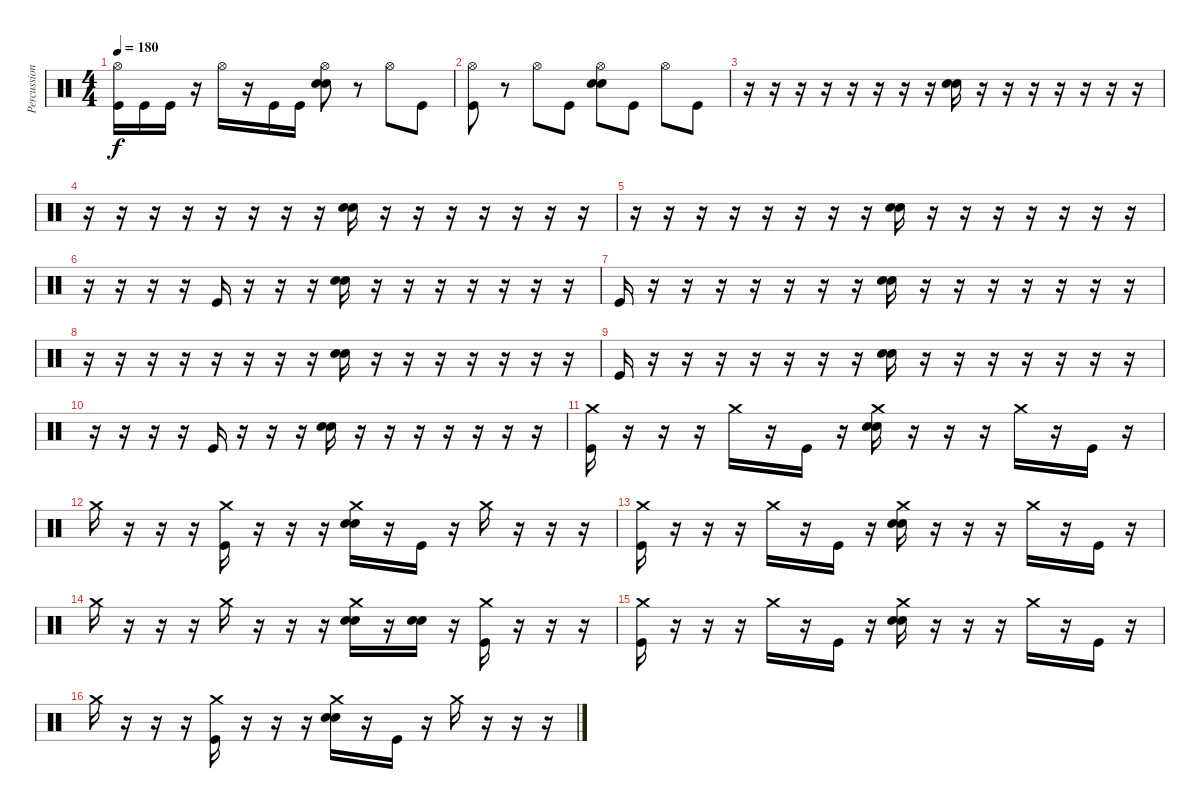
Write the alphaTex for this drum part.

\track ("Percussion" "Percussion") {instrument percussion}
\staff {score}
\articulation defaults
\ts (4 4)
\tempo 180
\clef neutral
\ks c
("Hi-Hat (open)" "Kick (hit)").16{dy f} "Kick (hit)".16 "Kick (hit)".16 r.16 "Hi-Hat (open)".16 r.16 "Kick (hit)".16 "Kick (hit)".16 ("Hi-Hat (open)" "Snare (hit) 2" "Electric Snare (hit)").8 r.8 "Hi-Hat (open)".8 "Kick (hit)".8 |
("Hi-Hat (open)" "Kick (hit)").8 r.8 "Hi-Hat (open)".8 "Kick (hit)".8 ("Hi-Hat (open)" "Snare (hit) 2" "Electric Snare (hit)").8 "Kick (hit)".8 "Hi-Hat (open)".8 "Kick (hit)".8 |
r.16 r.16 r.16 r.16 r.16 r.16 r.16 r.16 ("Snare (hit) 2" "Electric Snare (hit)").16 r.16 r.16 r.16 r.16 r.16 r.16 r.16 |
r.16 r.16 r.16 r.16 r.16 r.16 r.16 r.16 ("Snare (hit) 2" "Electric Snare (hit)").16 r.16 r.16 r.16 r.16 r.16 r.16 r.16 |
r.16 r.16 r.16 r.16 r.16 r.16 r.16 r.16 ("Snare (hit) 2" "Electric Snare (hit)").16 r.16 r.16 r.16 r.16 r.16 r.16 r.16 |
r.16 r.16 r.16 r.16 "Kick (hit)".16 r.16 r.16 r.16 ("Snare (hit) 2" "Electric Snare (hit)").16 r.16 r.16 r.16 r.16 r.16 r.16 r.16 |
"Kick (hit)".16 r.16 r.16 r.16 r.16 r.16 r.16 r.16 ("Snare (hit) 2" "Electric Snare (hit)").16 r.16 r.16 r.16 r.16 r.16 r.16 r.16 |
r.16 r.16 r.16 r.16 r.16 r.16 r.16 r.16 ("Snare (hit) 2" "Electric Snare (hit)").16 r.16 r.16 r.16 r.16 r.16 r.16 r.16 |
"Kick (hit)".16 r.16 r.16 r.16 r.16 r.16 r.16 r.16 ("Snare (hit) 2" "Electric Snare (hit)").16 r.16 r.16 r.16 r.16 r.16 r.16 r.16 |
r.16 r.16 r.16 r.16 "Kick (hit)".16 r.16 r.16 r.16 ("Snare (hit) 2" "Electric Snare (hit)").16 r.16 r.16 r.16 r.16 r.16 r.16 r.16 |
("Crash medium (hit)" "Kick (hit)").16 r.16 r.16 r.16 "Crash medium (hit)".16 r.16 "Kick (hit)".16 r.16 ("Crash medium (hit)" "Snare (hit) 2" "Electric Snare (hit)").16 r.16 r.16 r.16 "Crash medium (hit)".16 r.16 "Kick (hit)".16 r.16 |
"Crash medium (hit)".16 r.16 r.16 r.16 ("Crash medium (hit)" "Kick (hit)").16 r.16 r.16 r.16 ("Crash medium (hit)" "Snare (hit) 2" "Electric Snare (hit)").16 r.16 "Kick (hit)".16 r.16 "Crash medium (hit)".16 r.16 r.16 r.16 |
("Crash medium (hit)" "Kick (hit)").16 r.16 r.16 r.16 "Crash medium (hit)".16 r.16 "Kick (hit)".16 r.16 ("Crash medium (hit)" "Snare (hit) 2" "Electric Snare (hit)").16 r.16 r.16 r.16 "Crash medium (hit)".16 r.16 "Kick (hit)".16 r.16 |
"Crash medium (hit)".16 r.16 r.16 r.16 "Crash medium (hit)".16 r.16 r.16 r.16 ("Crash medium (hit)" "Snare (hit) 2" "Electric Snare (hit)").16 r.16 ("Snare (hit) 2" "Electric Snare (hit)").16 r.16 ("Crash medium (hit)" "Kick (hit)").16 r.16 r.16 r.16 |
("Crash medium (hit)" "Kick (hit)").16 r.16 r.16 r.16 "Crash medium (hit)".16 r.16 "Kick (hit)".16 r.16 ("Crash medium (hit)" "Snare (hit) 2" "Electric Snare (hit)").16 r.16 r.16 r.16 "Crash medium (hit)".16 r.16 "Kick (hit)".16 r.16 |
"Crash medium (hit)".16 r.16 r.16 r.16 ("Crash medium (hit)" "Kick (hit)").16 r.16 r.16 r.16 ("Crash medium (hit)" "Snare (hit) 2" "Electric Snare (hit)").16 r.16 "Kick (hit)".16 r.16 "Crash medium (hit)".16 r.16 r.16 r.16
